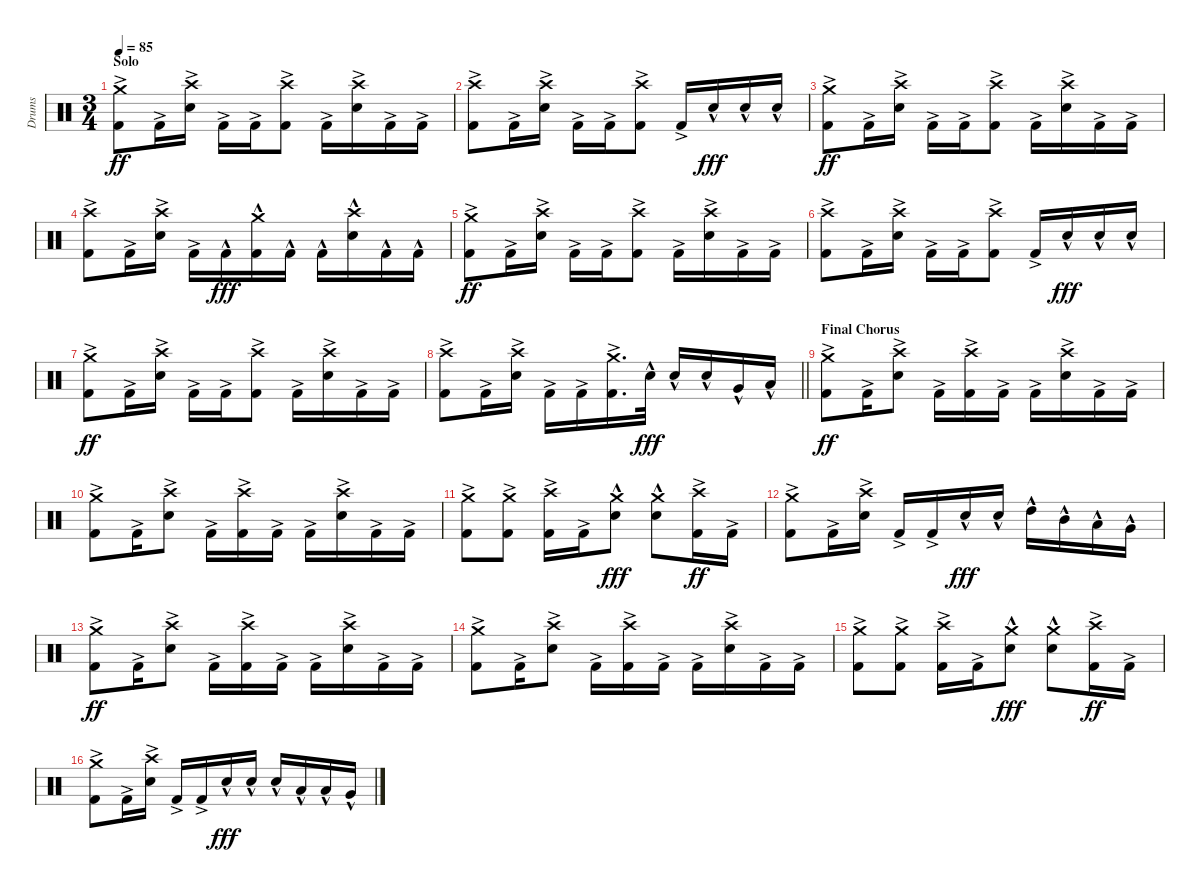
\track ("Drums" "Drums") {instrument percussion}
\staff {score}
\articulation defaults
\ts (3 4)
\section ("" "Solo")
\tempo 85
\clef neutral
\ks c
("Crash medium (hit)" "Kick (hit) 2"{ac}).8{dy ff} "Kick (hit) 2"{ac}.16 ("Crash high (hit)" "Electric Snare (hit)"{ac}).16 "Kick (hit) 2"{ac}.16 "Kick (hit) 2"{ac}.16 ("Crash high (hit)" "Kick (hit) 2"{ac}).8 "Kick (hit) 2"{ac}.16 ("Crash high (hit)" "Electric Snare (hit)"{ac}).16 "Kick (hit) 2"{ac}.16 "Kick (hit) 2"{ac}.16 |
("Crash high (hit)" "Kick (hit) 2"{ac}).8 "Kick (hit) 2"{ac}.16 ("Crash high (hit)" "Electric Snare (hit)"{ac}).16 "Kick (hit) 2"{ac}.16 "Kick (hit) 2"{ac}.16 ("Crash high (hit)" "Kick (hit) 2"{ac}).8 "Kick (hit) 2"{ac}.16 "Electric Snare (hit)"{hac}.16{dy fff} "Electric Snare (hit)"{hac}.16 "Electric Snare (hit)"{hac}.16 |
("Crash medium (hit)" "Kick (hit) 2"{ac}).8{dy ff} "Kick (hit) 2"{ac}.16 ("Crash high (hit)" "Electric Snare (hit)"{ac}).16 "Kick (hit) 2"{ac}.16 "Kick (hit) 2"{ac}.16 ("Crash high (hit)" "Kick (hit) 2"{ac}).8 "Kick (hit) 2"{ac}.16 ("Crash high (hit)" "Electric Snare (hit)"{ac}).16 "Kick (hit) 2"{ac}.16 "Kick (hit) 2"{ac}.16 |
("Crash high (hit)" "Kick (hit) 2"{ac}).8 "Kick (hit) 2"{ac}.16 ("Crash high (hit)" "Electric Snare (hit)"{ac}).16 "Kick (hit) 2"{ac}.16 "Kick (hit) 2"{hac}.16{dy fff} ("Crash medium (hit)" "Kick (hit) 2"{hac}).16 "Kick (hit) 2"{hac}.16 "Kick (hit) 2"{hac}.16 ("Crash high (hit)" "Electric Snare (hit)"{hac}).16 "Kick (hit) 2"{hac}.16 "Kick (hit) 2"{hac}.16 |
("Crash medium (hit)" "Kick (hit) 2"{ac}).8{dy ff} "Kick (hit) 2"{ac}.16 ("Crash high (hit)" "Electric Snare (hit)"{ac}).16 "Kick (hit) 2"{ac}.16 "Kick (hit) 2"{ac}.16 ("Crash high (hit)" "Kick (hit) 2"{ac}).8 "Kick (hit) 2"{ac}.16 ("Crash high (hit)" "Electric Snare (hit)"{ac}).16 "Kick (hit) 2"{ac}.16 "Kick (hit) 2"{ac}.16 |
("Crash high (hit)" "Kick (hit) 2"{ac}).8 "Kick (hit) 2"{ac}.16 ("Crash high (hit)" "Electric Snare (hit)"{ac}).16 "Kick (hit) 2"{ac}.16 "Kick (hit) 2"{ac}.16 ("Crash high (hit)" "Kick (hit) 2"{ac}).8 "Kick (hit) 2"{ac}.16 "Electric Snare (hit)"{hac}.16{dy fff} "Electric Snare (hit)"{hac}.16 "Electric Snare (hit)"{hac}.16 |
("Crash medium (hit)" "Kick (hit) 2"{ac}).8{dy ff} "Kick (hit) 2"{ac}.16 ("Crash high (hit)" "Electric Snare (hit)"{ac}).16 "Kick (hit) 2"{ac}.16 "Kick (hit) 2"{ac}.16 ("Crash high (hit)" "Kick (hit) 2"{ac}).8 "Kick (hit) 2"{ac}.16 ("Crash high (hit)" "Electric Snare (hit)"{ac}).16 "Kick (hit) 2"{ac}.16 "Kick (hit) 2"{ac}.16 |
\barLineRight lightlight
("Crash high (hit)" "Kick (hit) 2"{ac}).8 "Kick (hit) 2"{ac}.16 ("Crash high (hit)" "Electric Snare (hit)"{ac}).16 "Kick (hit) 2"{ac}.16 "Kick (hit) 2"{ac}.16 ("Crash medium (hit)" "Kick (hit) 2"{ac}).16{d} "Electric Snare (hit)"{hac}.32{dy fff} "Electric Snare (hit)"{hac}.16 "Electric Snare (hit)"{hac}.16 "Very Low Tom (hit)"{hac}.16 "Low Tom (hit)"{hac}.16 |
\section ("" "Final Chorus")
("Crash medium (hit)" "Kick (hit) 2"{ac}).8{dy ff} "Kick (hit) 2"{ac}.16 ("Crash high (hit)" "Electric Snare (hit)"{ac}).8 "Kick (hit) 2"{ac}.16 ("Crash high (hit)" "Kick (hit) 2"{ac}).16 "Kick (hit) 2"{ac}.16 "Kick (hit) 2"{ac}.16 ("Crash high (hit)" "Electric Snare (hit)"{ac}).16 "Kick (hit) 2"{ac}.16 "Kick (hit) 2"{ac}.16 |
("Crash medium (hit)" "Kick (hit) 2"{ac}).8 "Kick (hit) 2"{ac}.16 ("Crash high (hit)" "Electric Snare (hit)"{ac}).8 "Kick (hit) 2"{ac}.16 ("Crash high (hit)" "Kick (hit) 2"{ac}).16 "Kick (hit) 2"{ac}.16 "Kick (hit) 2"{ac}.16 ("Crash high (hit)" "Electric Snare (hit)"{ac}).16 "Kick (hit) 2"{ac}.16 "Kick (hit) 2"{ac}.16 |
("Crash medium (hit)" "Kick (hit) 2"{ac}).8 ("Crash medium (hit)" "Kick (hit) 2"{ac}).8 ("Crash high (hit)" "Kick (hit) 2"{ac}).16 "Kick (hit) 2"{ac}.16 ("Crash medium (hit)" "Electric Snare (hit)"{hac}).8{dy fff} ("Crash medium (hit)" "Electric Snare (hit)"{hac}).8 ("Crash high (hit)" "Kick (hit) 2"{ac}).16{dy ff} "Kick (hit) 2"{ac}.16 |
("Crash medium (hit)" "Kick (hit) 2"{ac}).8 "Kick (hit) 2"{ac}.16 ("Crash high (hit)" "Electric Snare (hit)"{ac}).16 "Kick (hit) 2"{ac}.16 "Kick (hit) 2"{ac}.16 "Electric Snare (hit)"{hac}.16{dy fff} "Electric Snare (hit)"{hac}.16 "High Tom (hit)"{hac}.16 "Mid Tom (hit)"{hac}.16 "Low Tom (hit)"{hac}.16 "Very Low Tom (hit)"{hac}.16 |
("Crash medium (hit)" "Kick (hit) 2"{ac}).8{dy ff} "Kick (hit) 2"{ac}.16 ("Crash high (hit)" "Electric Snare (hit)"{ac}).8 "Kick (hit) 2"{ac}.16 ("Crash high (hit)" "Kick (hit) 2"{ac}).16 "Kick (hit) 2"{ac}.16 "Kick (hit) 2"{ac}.16 ("Crash high (hit)" "Electric Snare (hit)"{ac}).16 "Kick (hit) 2"{ac}.16 "Kick (hit) 2"{ac}.16 |
("Crash medium (hit)" "Kick (hit) 2"{ac}).8 "Kick (hit) 2"{ac}.16 ("Crash high (hit)" "Electric Snare (hit)"{ac}).8 "Kick (hit) 2"{ac}.16 ("Crash high (hit)" "Kick (hit) 2"{ac}).16 "Kick (hit) 2"{ac}.16 "Kick (hit) 2"{ac}.16 ("Crash high (hit)" "Electric Snare (hit)"{ac}).16 "Kick (hit) 2"{ac}.16 "Kick (hit) 2"{ac}.16 |
("Crash medium (hit)" "Kick (hit) 2"{ac}).8 ("Crash medium (hit)" "Kick (hit) 2"{ac}).8 ("Crash high (hit)" "Kick (hit) 2"{ac}).16 "Kick (hit) 2"{ac}.16 ("Crash medium (hit)" "Electric Snare (hit)"{hac}).8{dy fff} ("Crash medium (hit)" "Electric Snare (hit)"{hac}).8 ("Crash high (hit)" "Kick (hit) 2"{ac}).16{dy ff} "Kick (hit) 2"{ac}.16 |
("Crash medium (hit)" "Kick (hit) 2"{ac}).8 "Kick (hit) 2"{ac}.16 ("Crash high (hit)" "Electric Snare (hit)"{ac}).16 "Kick (hit) 2"{ac}.16 "Kick (hit) 2"{ac}.16 "Electric Snare (hit)"{hac}.16{dy fff} "Electric Snare (hit)"{hac}.16 "Electric Snare (hit)"{hac}.16 "Low Floor Tom (hit)"{hac}.16 "Low Floor Tom (hit)"{hac}.16 "Very Low Tom (hit)"{hac}.16
